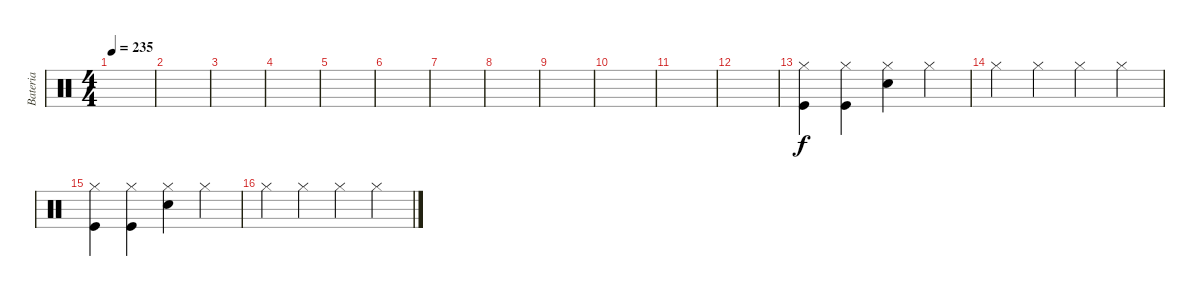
\track ("Bateria" "Bateria") {instrument percussion}
\staff {score}
\articulation defaults
\ts (4 4)
\tempo 235
\clef neutral
\ks c
|
|
|
|
|
|
|
|
|
|
|
|
("Hi-Hat (closed)" "Kick (hit)").4 ("Hi-Hat (closed)" "Kick (hit)").4 ("Hi-Hat (closed)" "Electric Snare (hit)").4 "Hi-Hat (closed)".4 |
"Hi-Hat (closed)".4 "Hi-Hat (closed)".4 "Hi-Hat (closed)".4 "Hi-Hat (closed)".4 |
("Hi-Hat (closed)" "Kick (hit)").4 ("Hi-Hat (closed)" "Kick (hit)").4 ("Hi-Hat (closed)" "Electric Snare (hit)").4 "Hi-Hat (closed)".4 |
"Hi-Hat (closed)".4 "Hi-Hat (closed)".4 "Hi-Hat (closed)".4 "Hi-Hat (closed)".4
